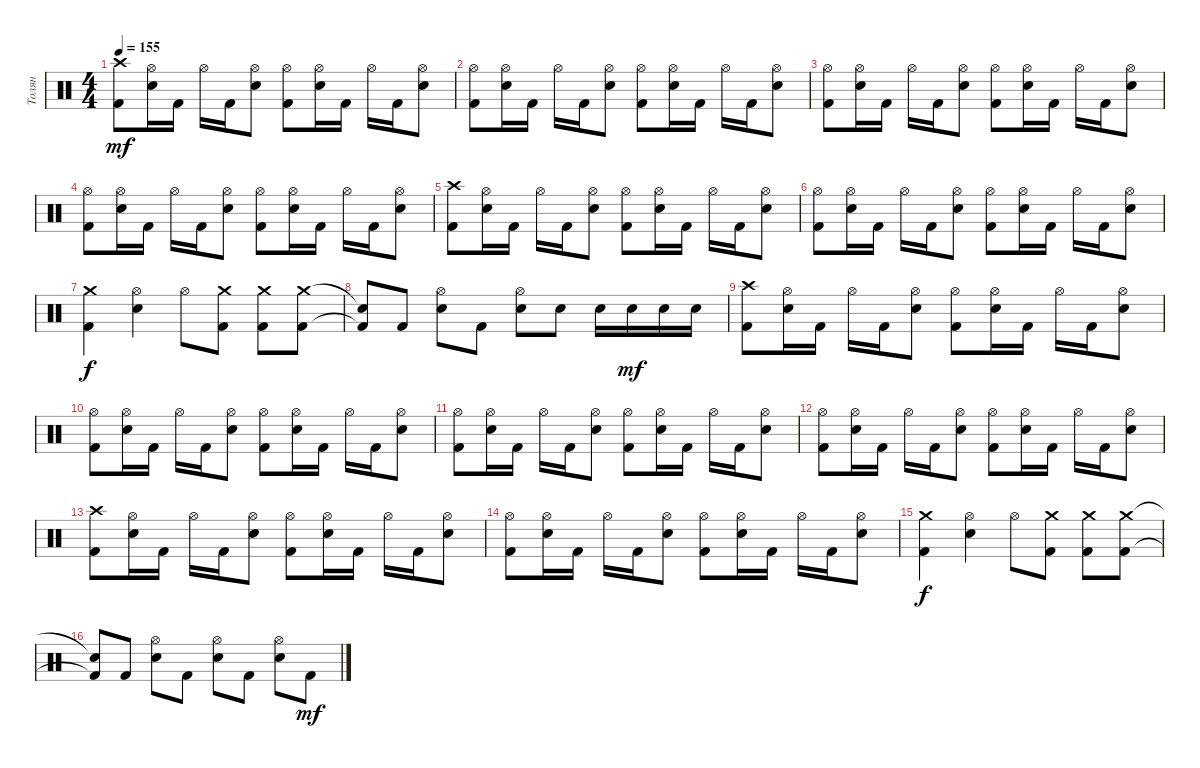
\track ("Толян" "Толян") {instrument percussion}
\staff {score}
\articulation defaults
\ts (4 4)
\tempo 155
\clef neutral
\ks c
("Kick (hit) 2" "Crash high (hit)").8{dy mf} ("Electric Snare (hit)" "Hi-Hat (open)").16 "Kick (hit) 2".16 "Hi-Hat (open)".16 "Kick (hit) 2".16 ("Electric Snare (hit)" "Hi-Hat (open)").8 ("Kick (hit) 2" "Hi-Hat (open)").8 ("Electric Snare (hit)" "Hi-Hat (open)").16 "Kick (hit) 2".16 "Hi-Hat (open)".16 "Kick (hit) 2".16 ("Electric Snare (hit)" "Hi-Hat (open)").8 |
("Kick (hit) 2" "Hi-Hat (open)").8 ("Electric Snare (hit)" "Hi-Hat (open)").16 "Kick (hit) 2".16 "Hi-Hat (open)".16 "Kick (hit) 2".16 ("Electric Snare (hit)" "Hi-Hat (open)").8 ("Kick (hit) 2" "Hi-Hat (open)").8 ("Electric Snare (hit)" "Hi-Hat (open)").16 "Kick (hit) 2".16 "Hi-Hat (open)".16 "Kick (hit) 2".16 ("Electric Snare (hit)" "Hi-Hat (open)").8 |
("Kick (hit) 2" "Hi-Hat (open)").8 ("Electric Snare (hit)" "Hi-Hat (open)").16 "Kick (hit) 2".16 "Hi-Hat (open)".16 "Kick (hit) 2".16 ("Electric Snare (hit)" "Hi-Hat (open)").8 ("Kick (hit) 2" "Hi-Hat (open)").8 ("Electric Snare (hit)" "Hi-Hat (open)").16 "Kick (hit) 2".16 "Hi-Hat (open)".16 "Kick (hit) 2".16 ("Electric Snare (hit)" "Hi-Hat (open)").8 |
("Kick (hit) 2" "Hi-Hat (open)").8 ("Electric Snare (hit)" "Hi-Hat (open)").16 "Kick (hit) 2".16 "Hi-Hat (open)".16 "Kick (hit) 2".16 ("Electric Snare (hit)" "Hi-Hat (open)").8 ("Kick (hit) 2" "Hi-Hat (open)").8 ("Electric Snare (hit)" "Hi-Hat (open)").16 "Kick (hit) 2".16 "Hi-Hat (open)".16 "Kick (hit) 2".16 ("Electric Snare (hit)" "Hi-Hat (open)").8 |
("Kick (hit) 2" "Crash high (hit)").8 ("Electric Snare (hit)" "Hi-Hat (open)").16 "Kick (hit) 2".16 "Hi-Hat (open)".16 "Kick (hit) 2".16 ("Electric Snare (hit)" "Hi-Hat (open)").8 ("Kick (hit) 2" "Hi-Hat (open)").8 ("Electric Snare (hit)" "Hi-Hat (open)").16 "Kick (hit) 2".16 "Hi-Hat (open)".16 "Kick (hit) 2".16 ("Electric Snare (hit)" "Hi-Hat (open)").8 |
("Kick (hit) 2" "Hi-Hat (open)").8 ("Electric Snare (hit)" "Hi-Hat (open)").16 "Kick (hit) 2".16 "Hi-Hat (open)".16 "Kick (hit) 2".16 ("Electric Snare (hit)" "Hi-Hat (open)").8 ("Kick (hit) 2" "Hi-Hat (open)").8 ("Electric Snare (hit)" "Hi-Hat (open)").16 "Kick (hit) 2".16 "Hi-Hat (open)".16 "Kick (hit) 2".16 ("Electric Snare (hit)" "Hi-Hat (open)").8 |
("Kick (hit) 2" "Crash medium (hit)").4{dy f} ("Electric Snare (hit)" "Hi-Hat (open)").4 "Hi-Hat (open)".8 ("Kick (hit) 2" "Crash medium (hit)").8 ("Kick (hit) 2" "Crash medium (hit)").8 ("Kick (hit) 2" "Crash medium (hit)").8 |
("Kick (hit) 2"{t} "Snare (hit)"{t}).8 "Kick (hit) 2".8 ("Electric Snare (hit)" "Hi-Hat (open)").8 "Kick (hit) 2".8 ("Electric Snare (hit)" "Hi-Hat (open)").8 "Electric Snare (hit)".8 "Electric Snare (hit)".16 "Electric Snare (hit)".16{dy mf} "Electric Snare (hit)".16 "Electric Snare (hit)".16 |
("Kick (hit) 2" "Crash high (hit)").8 ("Electric Snare (hit)" "Hi-Hat (open)").16 "Kick (hit) 2".16 "Hi-Hat (open)".16 "Kick (hit) 2".16 ("Electric Snare (hit)" "Hi-Hat (open)").8 ("Kick (hit) 2" "Hi-Hat (open)").8 ("Electric Snare (hit)" "Hi-Hat (open)").16 "Kick (hit) 2".16 "Hi-Hat (open)".16 "Kick (hit) 2".16 ("Electric Snare (hit)" "Hi-Hat (open)").8 |
("Kick (hit) 2" "Hi-Hat (open)").8 ("Electric Snare (hit)" "Hi-Hat (open)").16 "Kick (hit) 2".16 "Hi-Hat (open)".16 "Kick (hit) 2".16 ("Electric Snare (hit)" "Hi-Hat (open)").8 ("Kick (hit) 2" "Hi-Hat (open)").8 ("Electric Snare (hit)" "Hi-Hat (open)").16 "Kick (hit) 2".16 "Hi-Hat (open)".16 "Kick (hit) 2".16 ("Electric Snare (hit)" "Hi-Hat (open)").8 |
("Kick (hit) 2" "Hi-Hat (open)").8 ("Electric Snare (hit)" "Hi-Hat (open)").16 "Kick (hit) 2".16 "Hi-Hat (open)".16 "Kick (hit) 2".16 ("Electric Snare (hit)" "Hi-Hat (open)").8 ("Kick (hit) 2" "Hi-Hat (open)").8 ("Electric Snare (hit)" "Hi-Hat (open)").16 "Kick (hit) 2".16 "Hi-Hat (open)".16 "Kick (hit) 2".16 ("Electric Snare (hit)" "Hi-Hat (open)").8 |
("Kick (hit) 2" "Hi-Hat (open)").8 ("Electric Snare (hit)" "Hi-Hat (open)").16 "Kick (hit) 2".16 "Hi-Hat (open)".16 "Kick (hit) 2".16 ("Electric Snare (hit)" "Hi-Hat (open)").8 ("Kick (hit) 2" "Hi-Hat (open)").8 ("Electric Snare (hit)" "Hi-Hat (open)").16 "Kick (hit) 2".16 "Hi-Hat (open)".16 "Kick (hit) 2".16 ("Electric Snare (hit)" "Hi-Hat (open)").8 |
("Kick (hit) 2" "Crash high (hit)").8 ("Electric Snare (hit)" "Hi-Hat (open)").16 "Kick (hit) 2".16 "Hi-Hat (open)".16 "Kick (hit) 2".16 ("Electric Snare (hit)" "Hi-Hat (open)").8 ("Kick (hit) 2" "Hi-Hat (open)").8 ("Electric Snare (hit)" "Hi-Hat (open)").16 "Kick (hit) 2".16 "Hi-Hat (open)".16 "Kick (hit) 2".16 ("Electric Snare (hit)" "Hi-Hat (open)").8 |
("Kick (hit) 2" "Hi-Hat (open)").8 ("Electric Snare (hit)" "Hi-Hat (open)").16 "Kick (hit) 2".16 "Hi-Hat (open)".16 "Kick (hit) 2".16 ("Electric Snare (hit)" "Hi-Hat (open)").8 ("Kick (hit) 2" "Hi-Hat (open)").8 ("Electric Snare (hit)" "Hi-Hat (open)").16 "Kick (hit) 2".16 "Hi-Hat (open)".16 "Kick (hit) 2".16 ("Electric Snare (hit)" "Hi-Hat (open)").8 |
("Kick (hit) 2" "Crash medium (hit)").4{dy f} ("Electric Snare (hit)" "Hi-Hat (open)").4 "Hi-Hat (open)".8 ("Kick (hit) 2" "Crash medium (hit)").8 ("Kick (hit) 2" "Crash medium (hit)").8 ("Kick (hit) 2" "Crash medium (hit)").8 |
("Kick (hit) 2"{t} "Snare (hit)"{t}).8 "Kick (hit) 2".8 ("Electric Snare (hit)" "Hi-Hat (open)").8 "Kick (hit) 2".8 ("Electric Snare (hit)" "Hi-Hat (open)").8 "Kick (hit) 2".8 ("Electric Snare (hit)" "Hi-Hat (open)").8 "Kick (hit) 2".8{dy mf}
